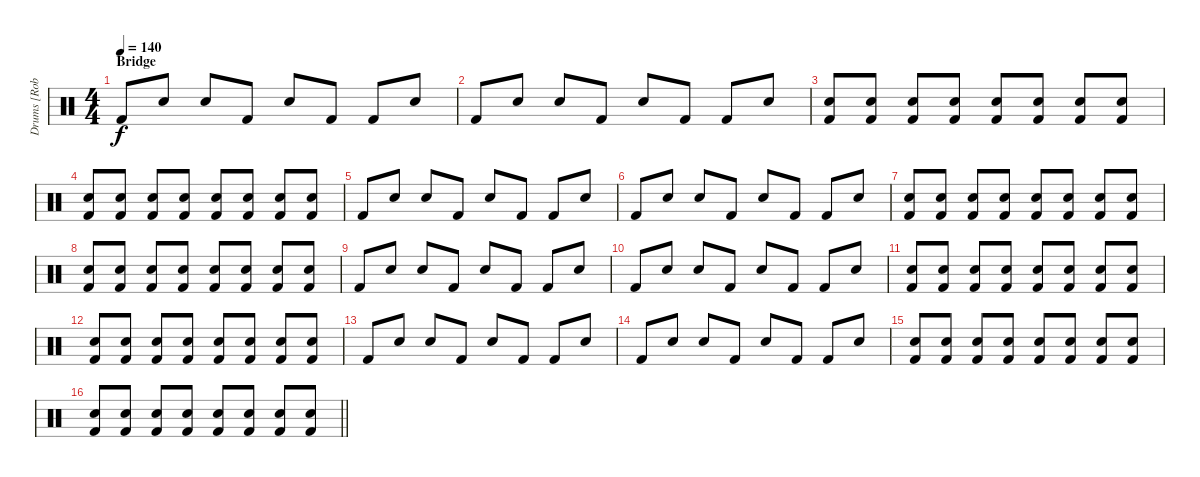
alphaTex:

\track ("Drums [Rob Bourdon]" "Drums [Rob") {instrument percussion}
\staff {score}
\articulation defaults
\ts (4 4)
\section ("" "Bridge")
\tempo 140
\clef neutral
\ks c "Kick (hit) 2".8{dy f} "Snare (hit) 2".8 "Snare (hit) 2".8 "Kick (hit) 2".8 "Snare (hit) 2".8 "Kick (hit) 2".8 "Kick (hit) 2".8 "Snare (hit) 2".8
|
"Kick (hit) 2".8 "Snare (hit) 2".8 "Snare (hit) 2".8 "Kick (hit) 2".8 "Snare (hit) 2".8 "Kick (hit) 2".8 "Kick (hit) 2".8 "Snare (hit) 2".8 |
("Snare (hit) 2" "Kick (hit) 2").8{volume 0} ("Snare (hit) 2" "Kick (hit) 2").8{volume 8} ("Snare (hit) 2" "Kick (hit) 2").8 ("Snare (hit) 2" "Kick (hit) 2").8 ("Snare (hit) 2" "Kick (hit) 2").8 ("Snare (hit) 2" "Kick (hit) 2").8 ("Snare (hit) 2" "Kick (hit) 2").8 ("Snare (hit) 2" "Kick (hit) 2").8 |
("Snare (hit) 2" "Kick (hit) 2").8 ("Snare (hit) 2" "Kick (hit) 2").8 ("Snare (hit) 2" "Kick (hit) 2").8 ("Snare (hit) 2" "Kick (hit) 2").8 ("Snare (hit) 2" "Kick (hit) 2").8 ("Snare (hit) 2" "Kick (hit) 2").8 ("Snare (hit) 2" "Kick (hit) 2").8 ("Snare (hit) 2" "Kick (hit) 2").8 |
"Kick (hit) 2".8 "Snare (hit) 2".8 "Snare (hit) 2".8 "Kick (hit) 2".8 "Snare (hit) 2".8 "Kick (hit) 2".8 "Kick (hit) 2".8 "Snare (hit) 2".8 |
"Kick (hit) 2".8 "Snare (hit) 2".8 "Snare (hit) 2".8 "Kick (hit) 2".8 "Snare (hit) 2".8 "Kick (hit) 2".8 "Kick (hit) 2".8 "Snare (hit) 2".8 |
("Snare (hit) 2" "Kick (hit) 2").8{volume 0} ("Snare (hit) 2" "Kick (hit) 2").8{volume 8} ("Snare (hit) 2" "Kick (hit) 2").8 ("Snare (hit) 2" "Kick (hit) 2").8 ("Snare (hit) 2" "Kick (hit) 2").8 ("Snare (hit) 2" "Kick (hit) 2").8 ("Snare (hit) 2" "Kick (hit) 2").8 ("Snare (hit) 2" "Kick (hit) 2").8 |
("Snare (hit) 2" "Kick (hit) 2").8 ("Snare (hit) 2" "Kick (hit) 2").8 ("Snare (hit) 2" "Kick (hit) 2").8 ("Snare (hit) 2" "Kick (hit) 2").8 ("Snare (hit) 2" "Kick (hit) 2").8 ("Snare (hit) 2" "Kick (hit) 2").8 ("Snare (hit) 2" "Kick (hit) 2").8 ("Snare (hit) 2" "Kick (hit) 2").8 |
"Kick (hit) 2".8 "Snare (hit) 2".8 "Snare (hit) 2".8 "Kick (hit) 2".8 "Snare (hit) 2".8 "Kick (hit) 2".8 "Kick (hit) 2".8 "Snare (hit) 2".8 |
"Kick (hit) 2".8 "Snare (hit) 2".8 "Snare (hit) 2".8 "Kick (hit) 2".8 "Snare (hit) 2".8 "Kick (hit) 2".8 "Kick (hit) 2".8 "Snare (hit) 2".8 |
("Snare (hit) 2" "Kick (hit) 2").8{volume 0} ("Snare (hit) 2" "Kick (hit) 2").8{volume 8} ("Snare (hit) 2" "Kick (hit) 2").8 ("Snare (hit) 2" "Kick (hit) 2").8 ("Snare (hit) 2" "Kick (hit) 2").8 ("Snare (hit) 2" "Kick (hit) 2").8 ("Snare (hit) 2" "Kick (hit) 2").8 ("Snare (hit) 2" "Kick (hit) 2").8 |
("Snare (hit) 2" "Kick (hit) 2").8 ("Snare (hit) 2" "Kick (hit) 2").8 ("Snare (hit) 2" "Kick (hit) 2").8 ("Snare (hit) 2" "Kick (hit) 2").8 ("Snare (hit) 2" "Kick (hit) 2").8 ("Snare (hit) 2" "Kick (hit) 2").8 ("Snare (hit) 2" "Kick (hit) 2").8 ("Snare (hit) 2" "Kick (hit) 2").8 |
"Kick (hit) 2".8 "Snare (hit) 2".8 "Snare (hit) 2".8 "Kick (hit) 2".8 "Snare (hit) 2".8 "Kick (hit) 2".8 "Kick (hit) 2".8 "Snare (hit) 2".8 |
"Kick (hit) 2".8 "Snare (hit) 2".8 "Snare (hit) 2".8 "Kick (hit) 2".8 "Snare (hit) 2".8 "Kick (hit) 2".8 "Kick (hit) 2".8 "Snare (hit) 2".8 |
("Snare (hit) 2" "Kick (hit) 2").8{volume 0} ("Snare (hit) 2" "Kick (hit) 2").8{volume 8} ("Snare (hit) 2" "Kick (hit) 2").8 ("Snare (hit) 2" "Kick (hit) 2").8 ("Snare (hit) 2" "Kick (hit) 2").8 ("Snare (hit) 2" "Kick (hit) 2").8 ("Snare (hit) 2" "Kick (hit) 2").8 ("Snare (hit) 2" "Kick (hit) 2").8 |
\barLineRight lightlight
("Snare (hit) 2" "Kick (hit) 2").8 ("Snare (hit) 2" "Kick (hit) 2").8 ("Snare (hit) 2" "Kick (hit) 2").8 ("Snare (hit) 2" "Kick (hit) 2").8 ("Snare (hit) 2" "Kick (hit) 2").8 ("Snare (hit) 2" "Kick (hit) 2").8 ("Snare (hit) 2" "Kick (hit) 2").8 ("Snare (hit) 2" "Kick (hit) 2").8
